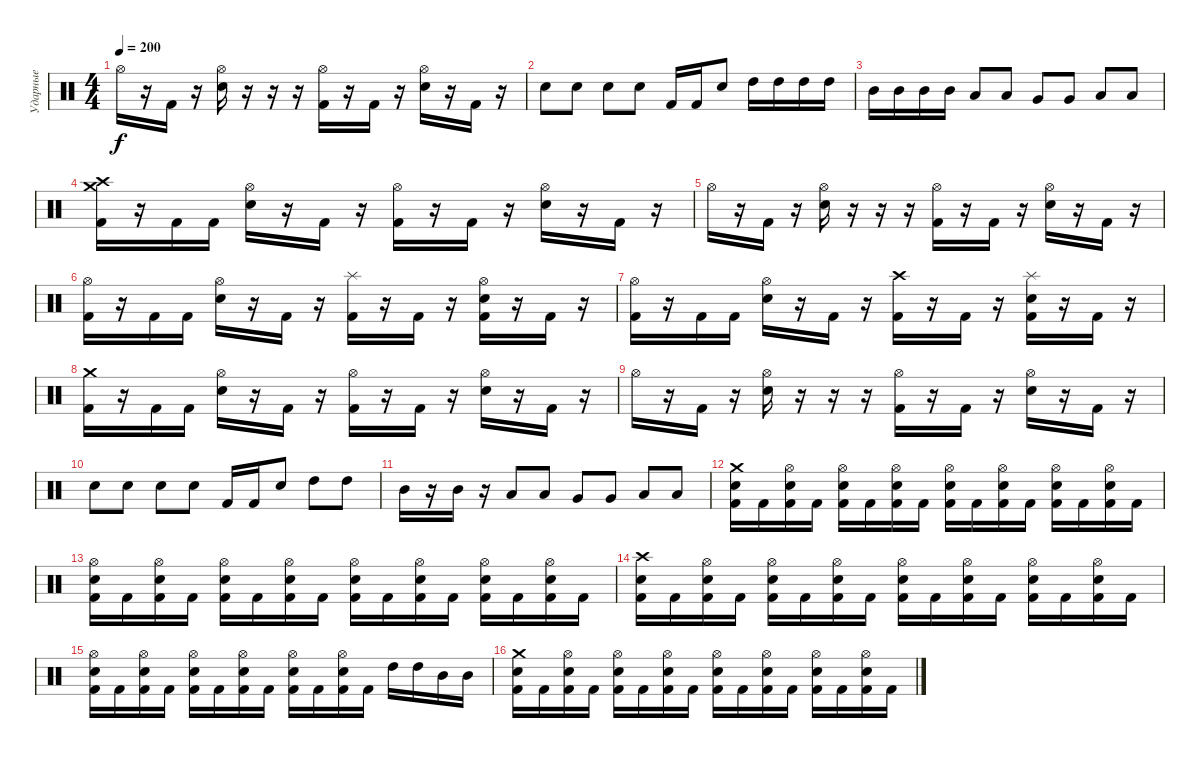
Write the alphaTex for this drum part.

\track ("Ударные" "Ударные") {instrument percussion}
\staff {score}
\articulation defaults
\ts (4 4)
\tempo 200
\clef neutral
\ks c "Hi-Hat (open)".16{dy f}
r.16 "Kick (hit) 2".16 r.16 ("Electric Snare (hit)" "Hi-Hat (open)").16 r.16 r.16 r.16 ("Kick (hit) 2" "Hi-Hat (open)").16 r.16 "Kick (hit) 2".16 r.16 ("Electric Snare (hit)" "Hi-Hat (open)").16 r.16 "Kick (hit) 2".16 r.16 |
"Electric Snare (hit)".8 "Electric Snare (hit)".8 "Electric Snare (hit)".8 "Electric Snare (hit)".8 "Kick (hit) 2".16 "Kick (hit) 2".16 "Electric Snare (hit)".8 "High Tom (hit)".16 "High Tom (hit)".16 "High Tom (hit)".16 "High Tom (hit)".16 |
"Mid Tom (hit)".16 "Mid Tom (hit)".16 "Mid Tom (hit)".16 "Mid Tom (hit)".16 "Low Tom (hit)".8 "Low Tom (hit)".8 "Very Low Tom (hit)".8 "Very Low Tom (hit)".8 "Low Floor Tom (hit)".8 "Low Floor Tom (hit)".8 |
("Kick (hit) 2" "Crash high (hit)" "Crash medium (hit)").16 r.16 "Kick (hit) 2".16 "Kick (hit) 2".16 ("Electric Snare (hit)" "Hi-Hat (open)").16 r.16 "Kick (hit) 2".16 r.16 ("Kick (hit) 2" "Hi-Hat (open)").16 r.16 "Kick (hit) 2".16 r.16 ("Electric Snare (hit)" "Hi-Hat (open)").16 r.16 "Kick (hit) 2".16 r.16 |
"Hi-Hat (open)".16 r.16 "Kick (hit) 2".16 r.16 ("Electric Snare (hit)" "Hi-Hat (open)").16 r.16 r.16 r.16 ("Kick (hit) 2" "Hi-Hat (open)").16 r.16 "Kick (hit) 2".16 r.16 ("Electric Snare (hit)" "Hi-Hat (open)").16 r.16 "Kick (hit) 2".16 r.16 |
("Kick (hit) 2" "Hi-Hat (open)").16 r.16 "Kick (hit) 2".16 "Kick (hit) 2".16 ("Electric Snare (hit)" "Hi-Hat (open)").16 r.16 "Kick (hit) 2".16 r.16 ("Kick (hit) 2" "Splash (hit)").16 r.16 "Kick (hit) 2".16 r.16 ("Kick (hit) 2" "Electric Snare (hit)" "Hi-Hat (open)").16 r.16 "Kick (hit) 2".16 r.16 |
("Kick (hit) 2" "Hi-Hat (open)").16 r.16 "Kick (hit) 2".16 "Kick (hit) 2".16 ("Electric Snare (hit)" "Hi-Hat (open)").16 r.16 "Kick (hit) 2".16 r.16 ("Kick (hit) 2" "Crash high (hit)").16 r.16 "Kick (hit) 2".16 r.16 ("Kick (hit) 2" "Electric Snare (hit)" "Splash (hit)").16 r.16 "Kick (hit) 2".16 r.16 |
("Kick (hit) 2" "Crash medium (hit)").16 r.16 "Kick (hit) 2".16 "Kick (hit) 2".16 ("Electric Snare (hit)" "Hi-Hat (open)").16 r.16 "Kick (hit) 2".16 r.16 ("Kick (hit) 2" "Hi-Hat (open)").16 r.16 "Kick (hit) 2".16 r.16 ("Electric Snare (hit)" "Hi-Hat (open)").16 r.16 "Kick (hit) 2".16 r.16 |
"Hi-Hat (open)".16 r.16 "Kick (hit) 2".16 r.16 ("Electric Snare (hit)" "Hi-Hat (open)").16 r.16 r.16 r.16 ("Kick (hit) 2" "Hi-Hat (open)").16 r.16 "Kick (hit) 2".16 r.16 ("Electric Snare (hit)" "Hi-Hat (open)").16 r.16 "Kick (hit) 2".16 r.16 |
"Electric Snare (hit)".8 "Electric Snare (hit)".8 "Electric Snare (hit)".8 "Electric Snare (hit)".8 "Kick (hit) 2".16 "Kick (hit) 2".16 "Electric Snare (hit)".8 "High Tom (hit)".8 "High Tom (hit)".8 |
"Mid Tom (hit)".16 r.16 "Mid Tom (hit)".16 r.16 "Low Tom (hit)".8 "Low Tom (hit)".8 "Very Low Tom (hit)".8 "Very Low Tom (hit)".8 "Low Floor Tom (hit)".8 "Low Floor Tom (hit)".8 |
("Kick (hit) 2" "Electric Snare (hit)" "Crash medium (hit)").16 "Kick (hit) 2".16 ("Kick (hit) 2" "Electric Snare (hit)" "Hi-Hat (open)").16 "Kick (hit) 2".16 ("Kick (hit) 2" "Electric Snare (hit)" "Hi-Hat (open)").16 "Kick (hit) 2".16 ("Kick (hit) 2" "Electric Snare (hit)" "Hi-Hat (open)").16 "Kick (hit) 2".16 ("Kick (hit) 2" "Electric Snare (hit)" "Hi-Hat (open)").16 "Kick (hit) 2".16 ("Kick (hit) 2" "Electric Snare (hit)" "Hi-Hat (open)").16 "Kick (hit) 2".16 ("Kick (hit) 2" "Electric Snare (hit)" "Hi-Hat (open)").16 "Kick (hit) 2".16 ("Kick (hit) 2" "Electric Snare (hit)" "Hi-Hat (open)").16 "Kick (hit) 2".16 |
("Kick (hit) 2" "Electric Snare (hit)" "Hi-Hat (open)").16 "Kick (hit) 2".16 ("Kick (hit) 2" "Electric Snare (hit)" "Hi-Hat (open)").16 "Kick (hit) 2".16 ("Kick (hit) 2" "Electric Snare (hit)" "Hi-Hat (open)").16 "Kick (hit) 2".16 ("Kick (hit) 2" "Electric Snare (hit)" "Hi-Hat (open)").16 "Kick (hit) 2".16 ("Kick (hit) 2" "Electric Snare (hit)" "Hi-Hat (open)").16 "Kick (hit) 2".16 ("Kick (hit) 2" "Electric Snare (hit)" "Hi-Hat (open)").16 "Kick (hit) 2".16 ("Kick (hit) 2" "Electric Snare (hit)" "Hi-Hat (open)").16 "Kick (hit) 2".16 ("Kick (hit) 2" "Electric Snare (hit)" "Hi-Hat (open)").16 "Kick (hit) 2".16 |
("Kick (hit) 2" "Electric Snare (hit)" "Crash high (hit)").16 "Kick (hit) 2".16 ("Kick (hit) 2" "Electric Snare (hit)" "Hi-Hat (open)").16 "Kick (hit) 2".16 ("Kick (hit) 2" "Electric Snare (hit)" "Hi-Hat (open)").16 "Kick (hit) 2".16 ("Kick (hit) 2" "Electric Snare (hit)" "Hi-Hat (open)").16 "Kick (hit) 2".16 ("Kick (hit) 2" "Electric Snare (hit)" "Hi-Hat (open)").16 "Kick (hit) 2".16 ("Kick (hit) 2" "Electric Snare (hit)" "Hi-Hat (open)").16 "Kick (hit) 2".16 ("Kick (hit) 2" "Electric Snare (hit)" "Hi-Hat (open)").16 "Kick (hit) 2".16 ("Kick (hit) 2" "Electric Snare (hit)" "Hi-Hat (open)").16 "Kick (hit) 2".16 |
("Kick (hit) 2" "Electric Snare (hit)" "Hi-Hat (open)").16 "Kick (hit) 2".16 ("Kick (hit) 2" "Electric Snare (hit)" "Hi-Hat (open)").16 "Kick (hit) 2".16 ("Kick (hit) 2" "Electric Snare (hit)" "Hi-Hat (open)").16 "Kick (hit) 2".16 ("Kick (hit) 2" "Electric Snare (hit)" "Hi-Hat (open)").16 "Kick (hit) 2".16 ("Kick (hit) 2" "Electric Snare (hit)" "Hi-Hat (open)").16 "Kick (hit) 2".16 ("Kick (hit) 2" "Electric Snare (hit)" "Hi-Hat (open)").16 "Kick (hit) 2".16 "High Tom (hit)".16 "High Tom (hit)".16 "Mid Tom (hit)".16 "Mid Tom (hit)".16 |
("Kick (hit) 2" "Electric Snare (hit)" "Crash medium (hit)").16 "Kick (hit) 2".16 ("Kick (hit) 2" "Electric Snare (hit)" "Hi-Hat (open)").16 "Kick (hit) 2".16 ("Kick (hit) 2" "Electric Snare (hit)" "Hi-Hat (open)").16 "Kick (hit) 2".16 ("Kick (hit) 2" "Electric Snare (hit)" "Hi-Hat (open)").16 "Kick (hit) 2".16 ("Kick (hit) 2" "Electric Snare (hit)" "Hi-Hat (open)").16 "Kick (hit) 2".16 ("Kick (hit) 2" "Electric Snare (hit)" "Hi-Hat (open)").16 "Kick (hit) 2".16 ("Kick (hit) 2" "Electric Snare (hit)" "Hi-Hat (open)").16 "Kick (hit) 2".16 ("Kick (hit) 2" "Electric Snare (hit)" "Hi-Hat (open)").16 "Kick (hit) 2".16
